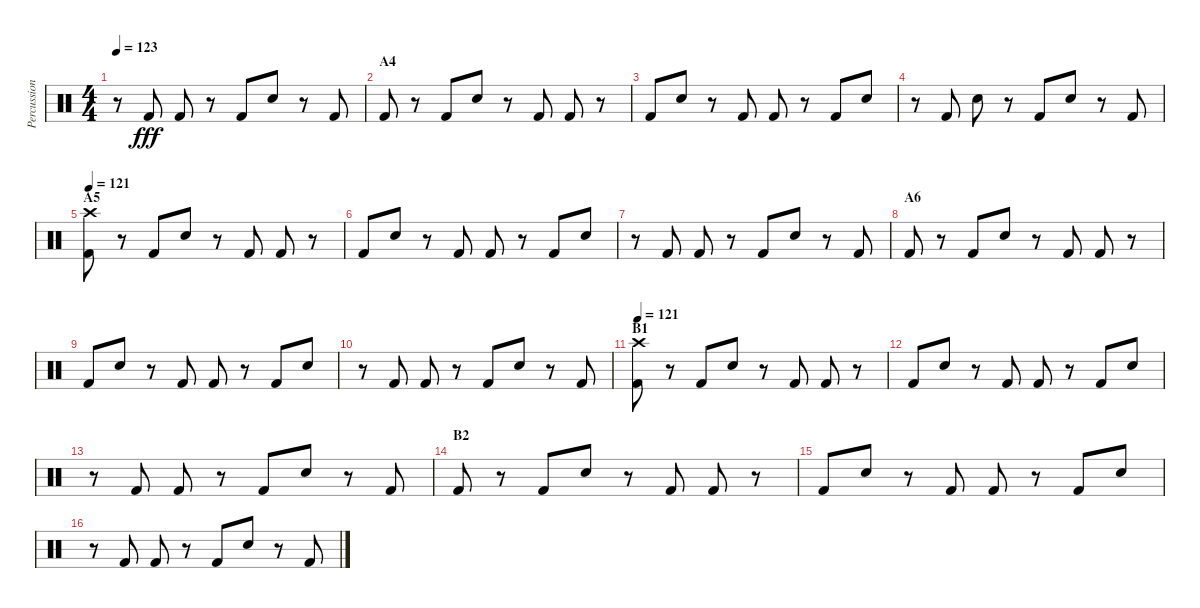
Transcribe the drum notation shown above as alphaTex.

\track ("Percussion" "Percussion") {instrument percussion}
\staff {score}
\articulation defaults
\ts (4 4)
\tempo 123
\clef neutral
\ks c
r.8{dy fff} "Kick (hit) 2".8 "Kick (hit) 2".8 r.8 "Kick (hit) 2".8 "Electric Snare (hit)".8 r.8 "Kick (hit) 2".8 |
\section ("" "A4")
"Kick (hit) 2".8 r.8 "Kick (hit) 2".8 "Electric Snare (hit)".8 r.8 "Kick (hit) 2".8 "Kick (hit) 2".8 r.8 |
"Kick (hit) 2".8 "Electric Snare (hit)".8 r.8 "Kick (hit) 2".8 "Kick (hit) 2".8 r.8 "Kick (hit) 2".8 "Electric Snare (hit)".8 |
r.8 "Kick (hit) 2".8 "Electric Snare (hit)".8 r.8 "Kick (hit) 2".8 "Electric Snare (hit)".8 r.8 "Kick (hit) 2".8 |
\section ("" "A5")
\tempo 121
("Kick (hit) 2" "Crash high (hit)").8 r.8 "Kick (hit) 2".8 "Electric Snare (hit)".8 r.8 "Kick (hit) 2".8 "Kick (hit) 2".8 r.8 |
"Kick (hit) 2".8 "Electric Snare (hit)".8 r.8 "Kick (hit) 2".8 "Kick (hit) 2".8 r.8 "Kick (hit) 2".8 "Electric Snare (hit)".8 |
r.8 "Kick (hit) 2".8 "Kick (hit) 2".8 r.8 "Kick (hit) 2".8 "Electric Snare (hit)".8 r.8 "Kick (hit) 2".8 |
\section ("" "A6")
"Kick (hit) 2".8 r.8 "Kick (hit) 2".8 "Electric Snare (hit)".8 r.8 "Kick (hit) 2".8 "Kick (hit) 2".8 r.8 |
"Kick (hit) 2".8 "Electric Snare (hit)".8 r.8 "Kick (hit) 2".8 "Kick (hit) 2".8 r.8 "Kick (hit) 2".8 "Electric Snare (hit)".8 |
r.8 "Kick (hit) 2".8 "Kick (hit) 2".8 r.8 "Kick (hit) 2".8 "Electric Snare (hit)".8 r.8 "Kick (hit) 2".8 |
\section ("" "B1")
\tempo 121
("Kick (hit) 2" "Crash high (hit)").8 r.8 "Kick (hit) 2".8 "Electric Snare (hit)".8 r.8 "Kick (hit) 2".8 "Kick (hit) 2".8 r.8 |
"Kick (hit) 2".8 "Electric Snare (hit)".8 r.8 "Kick (hit) 2".8 "Kick (hit) 2".8 r.8 "Kick (hit) 2".8 "Electric Snare (hit)".8 |
r.8 "Kick (hit) 2".8 "Kick (hit) 2".8 r.8 "Kick (hit) 2".8 "Electric Snare (hit)".8 r.8 "Kick (hit) 2".8 |
\section ("" "B2")
"Kick (hit) 2".8 r.8 "Kick (hit) 2".8 "Electric Snare (hit)".8 r.8 "Kick (hit) 2".8 "Kick (hit) 2".8 r.8 |
"Kick (hit) 2".8 "Electric Snare (hit)".8 r.8 "Kick (hit) 2".8 "Kick (hit) 2".8 r.8 "Kick (hit) 2".8 "Electric Snare (hit)".8 |
r.8 "Kick (hit) 2".8 "Kick (hit) 2".8 r.8 "Kick (hit) 2".8 "Electric Snare (hit)".8 r.8 "Kick (hit) 2".8
